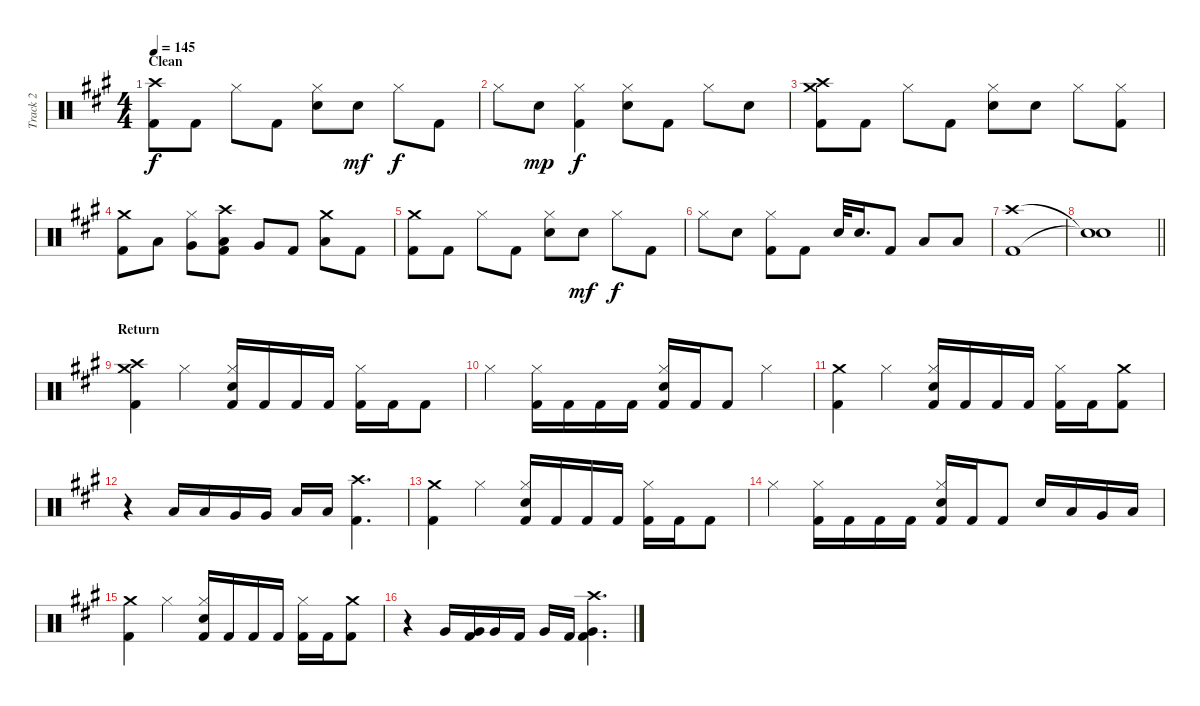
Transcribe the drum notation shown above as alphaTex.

\track ("Track 2" "Track 2") {instrument percussion}
\staff {score}
\articulation defaults
\ts (4 4)
\section ("" "Clean")
\tempo 145
\clef neutral
\ks a
("Crash high (hit)" "Kick (hit) 2").8{dy f} "Kick (hit) 2".8 "Hi-Hat (closed)".8 "Kick (hit) 2".8 ("Hi-Hat (closed)" "Snare (hit) 2").8 "Snare (hit) 2".8{dy mf} "Hi-Hat (closed)".8{dy f} "Kick (hit) 2".8 |
"Hi-Hat (closed)".8 "Snare (hit) 2".8{dy mp} ("Hi-Hat (closed)" "Kick (hit) 2").4{dy f} ("Hi-Hat (closed)" "Snare (hit) 2").8 "Kick (hit) 2".8 "Hi-Hat (closed)".8 "Snare (hit) 2".8 |
("Crash high (hit)" "Crash medium (hit)" "Kick (hit) 2").8 "Kick (hit) 2".8 "Hi-Hat (closed)".8 "Kick (hit) 2".8 ("Hi-Hat (closed)" "Snare (hit) 2").8 "Snare (hit) 2".8 "Hi-Hat (closed)".8 ("Hi-Hat (closed)" "Kick (hit) 2").8 |
("Crash medium (hit)" "Kick (hit) 2").8 "Low Tom (hit)".8 ("Hi-Hat (closed)" "Very Low Tom (hit)").8 ("Crash high (hit)" "Low Floor Tom (hit)" "Kick (hit) 2").8 "Very Low Tom (hit)".8 "Kick (hit) 2".8 ("Crash medium (hit)" "Low Floor Tom (hit)").8 "Kick (hit) 2".8 |
("Crash medium (hit)" "Kick (hit) 2").8 "Kick (hit) 2".8 "Hi-Hat (closed)".8 "Kick (hit) 2".8 ("Hi-Hat (closed)" "Snare (hit) 2").8 "Snare (hit) 2".8{dy mf} "Hi-Hat (closed)".8{dy f} "Kick (hit) 2".8 |
"Hi-Hat (closed)".8 "Snare (hit) 2".8 ("Hi-Hat (closed)" "Kick (hit) 2").8 "Kick (hit) 2".8 "Snare (hit) 2".32 "Snare (hit) 2".16{d} "Kick (hit) 2".8 "Low Tom (hit)".8 "Low Floor Tom (hit)".8 |
("Crash high (hit)" "Kick (hit) 2").1 |
\barLineRight lightlight
("Snare (hit)"{t} "Snare (hit)"{t}).1 |
\section ("" "Return")
("Crash high (hit)" "Crash medium (hit)" "Kick (hit) 2").4 "Hi-Hat (closed)".4 ("Hi-Hat (closed)" "Snare (hit) 2" "Kick (hit) 2").16 "Kick (hit) 2".16 "Kick (hit) 2".16 "Kick (hit) 2".16 ("Hi-Hat (closed)" "Kick (hit) 2").16 "Kick (hit) 2".16 "Kick (hit) 2".8 |
"Hi-Hat (closed)".4 ("Hi-Hat (closed)" "Kick (hit) 2").16 "Kick (hit) 2".16 "Kick (hit) 2".16 "Kick (hit) 2".16 ("Hi-Hat (closed)" "Snare (hit) 2" "Kick (hit) 2").16 "Kick (hit) 2".16 "Kick (hit) 2".8 "Hi-Hat (closed)".4 |
("Crash medium (hit)" "Kick (hit) 2").4 "Hi-Hat (closed)".4 ("Hi-Hat (closed)" "Snare (hit) 2" "Kick (hit) 2").16 "Kick (hit) 2".16 "Kick (hit) 2".16 "Kick (hit) 2".16 ("Hi-Hat (closed)" "Kick (hit) 2").16 "Kick (hit) 2".16 ("Crash medium (hit)" "Kick (hit) 2").8 |
r.4 "Low Tom (hit)".16 "Low Tom (hit)".16 "Very Low Tom (hit)".16 "Very Low Tom (hit)".16 "Low Floor Tom (hit)".16 "Low Floor Tom (hit)".16 ("Crash high (hit)" "Kick (hit) 2").4{d} |
("Crash medium (hit)" "Kick (hit) 2").4 "Hi-Hat (closed)".4 ("Hi-Hat (closed)" "Snare (hit) 2" "Kick (hit) 2").16 "Kick (hit) 2".16 "Kick (hit) 2".16 "Kick (hit) 2".16 ("Hi-Hat (closed)" "Kick (hit) 2").16 "Kick (hit) 2".16 "Kick (hit) 2".8 |
"Hi-Hat (closed)".4 ("Hi-Hat (closed)" "Kick (hit) 2").16 "Kick (hit) 2".16 "Kick (hit) 2".16 "Kick (hit) 2".16 ("Hi-Hat (closed)" "Snare (hit) 2" "Kick (hit) 2").16 "Kick (hit) 2".16 "Kick (hit) 2".8 "Snare (hit) 2".16 "Low Tom (hit)".16 "Very Low Tom (hit)".16 "Low Floor Tom (hit)".16 |
("Crash medium (hit)" "Kick (hit) 2").4 "Hi-Hat (closed)".4 ("Hi-Hat (closed)" "Snare (hit) 2" "Kick (hit) 2").16 "Kick (hit) 2".16 "Kick (hit) 2".16 "Kick (hit) 2".16 ("Hi-Hat (closed)" "Kick (hit) 2").16 "Kick (hit) 2".16 ("Crash medium (hit)" "Kick (hit) 2").8 |
r.4 "Very Low Tom (hit)".16 ("Very Low Tom (hit)" "Kick (hit) 2").16 "Very Low Tom (hit)".16 "Kick (hit) 2".16 "Very Low Tom (hit)".16 "Kick (hit) 2".16 ("Crash high (hit)" "Very Low Tom (hit)" "Kick (hit) 2").4{d}
